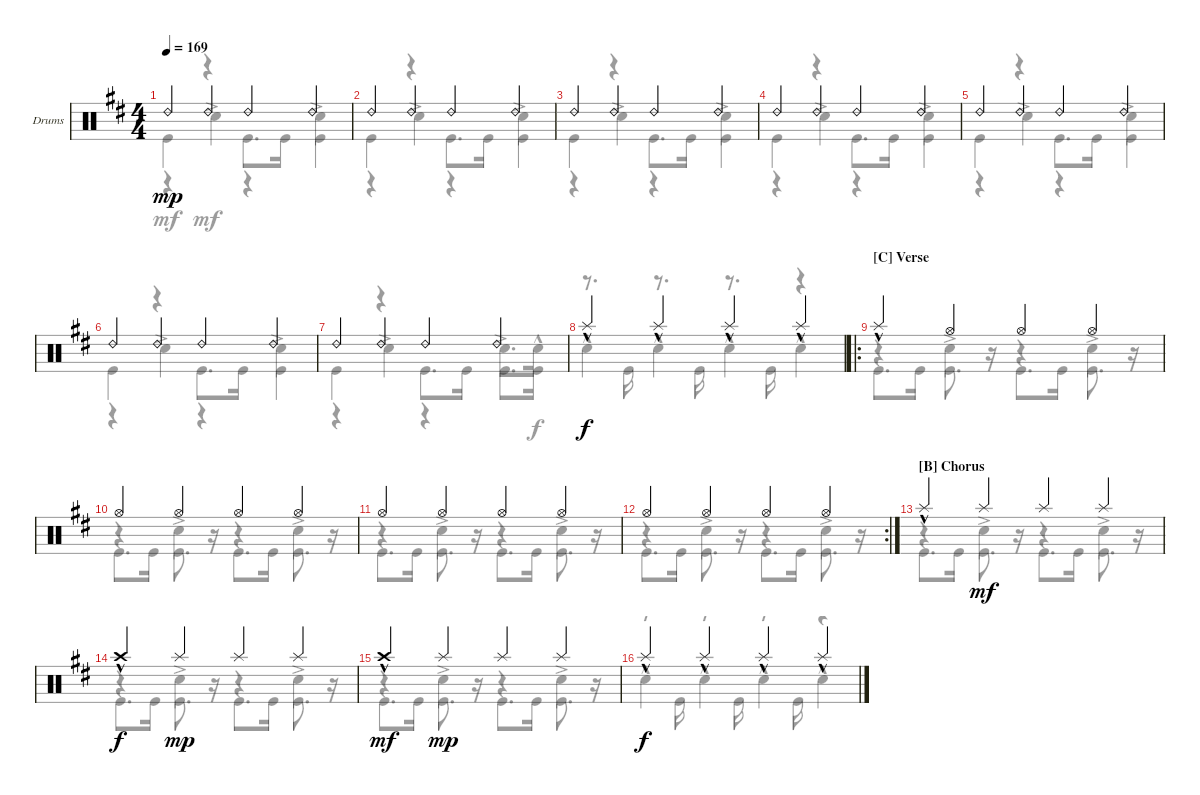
\defaultSystemsLayout 4
\bracketExtendMode groupsimilarinstruments
\firstSystemTrackNameOrientation horizontal
\otherSystemsTrackNameOrientation horizontal
\track ("Drumkit (Wolf Gemora)" "Drums") {instrument percussion}
\staff {score}
\articulation defaults
\voice
\ts (4 4)
\tempo 169
\clef neutral
\ks bminor "Ride (bell) 2".4{dy mp} "Ride (bell) 2".4 "Ride (bell) 2".4 "Ride (bell) 2".4
|
"Ride (bell) 2".4 "Ride (bell) 2".4 "Ride (bell) 2".4 "Ride (bell) 2".4 |
"Ride (bell) 2".4 "Ride (bell) 2".4 "Ride (bell) 2".4 "Ride (bell) 2".4 |
"Ride (bell) 2".4 "Ride (bell) 2".4 "Ride (bell) 2".4 "Ride (bell) 2".4 |
"Ride (bell) 2".4 "Ride (bell) 2".4 "Ride (bell) 2".4 "Ride (bell) 2".4 |
"Ride (bell) 2".4 "Ride (bell) 2".4 "Ride (bell) 2".4 "Ride (bell) 2".4 |
"Ride (bell) 2".4 "Ride (bell) 2".4 "Ride (bell) 2".4 "Ride (bell) 2".4 |
"Splash (hit)"{hac}.4{dy f} "Splash (hit)"{hac}.4 "Splash (hit)"{hac}.4 "Splash (hit)"{hac}.4 |
\ro
\section ("C" "Verse")
"Splash (hit)"{hac}.4 "Hi-Hat (open)".4 "Hi-Hat (open)".4 "Hi-Hat (open)".4 |
"Hi-Hat (open)".4 "Hi-Hat (open)".4 "Hi-Hat (open)".4 "Hi-Hat (open)".4 |
"Hi-Hat (open)".4 "Hi-Hat (open)".4 "Hi-Hat (open)".4 "Hi-Hat (open)".4 |
\rc 2 "Hi-Hat (open)".4 "Hi-Hat (open)".4 "Hi-Hat (open)".4 "Hi-Hat (open)".4
|
\section ("B" "Chorus")
"Splash (hit)"{hac}.4 "Splash (hit)".4{dy mf} "Splash (hit)".4 "Splash (hit)".4 |
"Crash high (hit)"{hac}.4{dy f} "Splash (hit)".4{dy mp} "Splash (hit)".4 "Splash (hit)".4 |
"Crash high (hit)"{hac}.4{dy mf} "Splash (hit)".4{dy mp} "Splash (hit)".4 "Splash (hit)".4 |
"Splash (hit)"{hac}.4{dy f} "Splash (hit)"{hac}.4 "Splash (hit)"{hac}.4 "Splash (hit)"{hac}.4
\voice
\clef neutral
\ottava regular
\simile none
\ks bminor "Kick (hit)".4{dy mf}
r.4 "Kick (hit)".8{d} "Kick (hit)".16 "Kick (hit)".4 |
"Kick (hit)".4 r.4 "Kick (hit)".8{d} "Kick (hit)".16 "Kick (hit)".4 |
"Kick (hit)".4 r.4 "Kick (hit)".8{d} "Kick (hit)".16 "Kick (hit)".4 |
"Kick (hit)".4 r.4 "Kick (hit)".8{d} "Kick (hit)".16 "Kick (hit)".4 |
"Kick (hit)".4 r.4 "Kick (hit)".8{d} "Kick (hit)".16 "Kick (hit)".4 |
"Kick (hit)".4 r.4 "Kick (hit)".8{d} "Kick (hit)".16 "Kick (hit)".4 |
"Kick (hit)".4 r.4 "Kick (hit)".8{d} "Kick (hit)".16 "Kick (hit)".8{d} "Kick (hit)".16 |
r.8{d} "Kick (hit)".16 r.8{d} "Kick (hit)".16 r.8{d} "Kick (hit)".16 r.4 |
"Kick (hit)".8{d} "Kick (hit)".16 "Kick (hit)".8{d} r.16 "Kick (hit)".8{d} "Kick (hit)".16 "Kick (hit)".8{d} r.16 |
"Kick (hit)".8{d} "Kick (hit)".16 "Kick (hit)".8{d} r.16 "Kick (hit)".8{d} "Kick (hit)".16 "Kick (hit)".8{d} r.16 |
"Kick (hit)".8{d} "Kick (hit)".16 "Kick (hit)".8{d} r.16 "Kick (hit)".8{d} "Kick (hit)".16 "Kick (hit)".8{d} r.16 |
"Kick (hit)".8{d} "Kick (hit)".16 "Kick (hit)".8{d} r.16 "Kick (hit)".8{d} "Kick (hit)".16 "Kick (hit)".8{d} r.16 |
"Kick (hit)".8{d} "Kick (hit)".16 "Kick (hit)".8{d} r.16 "Kick (hit)".8{d} "Kick (hit)".16 "Kick (hit)".8{d} r.16 |
"Kick (hit)".8{d} "Kick (hit)".16 "Kick (hit)".8{d} r.16 "Kick (hit)".8{d} "Kick (hit)".16 "Kick (hit)".8{d} r.16 |
"Kick (hit)".8{d} "Kick (hit)".16 "Kick (hit)".8{d} r.16 "Kick (hit)".8{d} "Kick (hit)".16 "Kick (hit)".8{d} r.16 |
r.8{d} "Kick (hit)".16 r.8{d} "Kick (hit)".16 r.8{d} "Kick (hit)".16 r.4
\voice
\clef neutral
\ottava regular
\simile none
\ks bminor
r.4{dy mf} "Snare (hit) 2"{ac}.4 r.4 "Snare (hit) 2"{ac}.4 |
r.4 "Snare (hit) 2"{ac}.4 r.4 "Snare (hit) 2"{ac}.4 |
r.4 "Snare (hit) 2"{ac}.4 r.4 "Snare (hit) 2"{ac}.4 |
r.4 "Snare (hit) 2"{ac}.4 r.4 "Snare (hit) 2"{ac}.4 |
r.4 "Snare (hit) 2"{ac}.4 r.4 "Snare (hit) 2"{ac}.4 |
r.4 "Snare (hit) 2"{ac}.4 r.4 "Snare (hit) 2"{ac}.4 |
r.4 "Snare (hit) 2"{ac}.4 r.4 "Snare (hit) 2"{ac}.8{d} "Snare (hit) 2"{hac}.16{dy f} |
"Snare (hit) 2"{hac}.4 "Snare (hit) 2"{hac}.4 "Snare (hit) 2"{hac}.4 "Snare (hit) 2"{hac}.4 |
r.4 "Snare (hit) 2"{ac}.4 r.4 "Snare (hit) 2"{ac}.4 |
r.4 "Snare (hit) 2"{ac}.4 r.4 "Snare (hit) 2"{ac}.4 |
r.4 "Snare (hit) 2"{ac}.4 r.4 "Snare (hit) 2"{ac}.4 |
r.4 "Snare (hit) 2"{ac}.4 r.4 "Snare (hit) 2"{ac}.4 |
r.4 "Snare (hit) 2"{ac}.4 r.4 "Snare (hit) 2"{ac}.4 |
r.4 "Snare (hit) 2"{ac}.4 r.4 "Snare (hit) 2"{ac}.4 |
r.4 "Snare (hit) 2"{ac}.4 r.4 "Snare (hit) 2"{ac}.4 |
"Snare (hit) 2"{hac}.4 "Snare (hit) 2"{hac}.4 "Snare (hit) 2"{hac}.4 "Snare (hit) 2"{hac}.4
